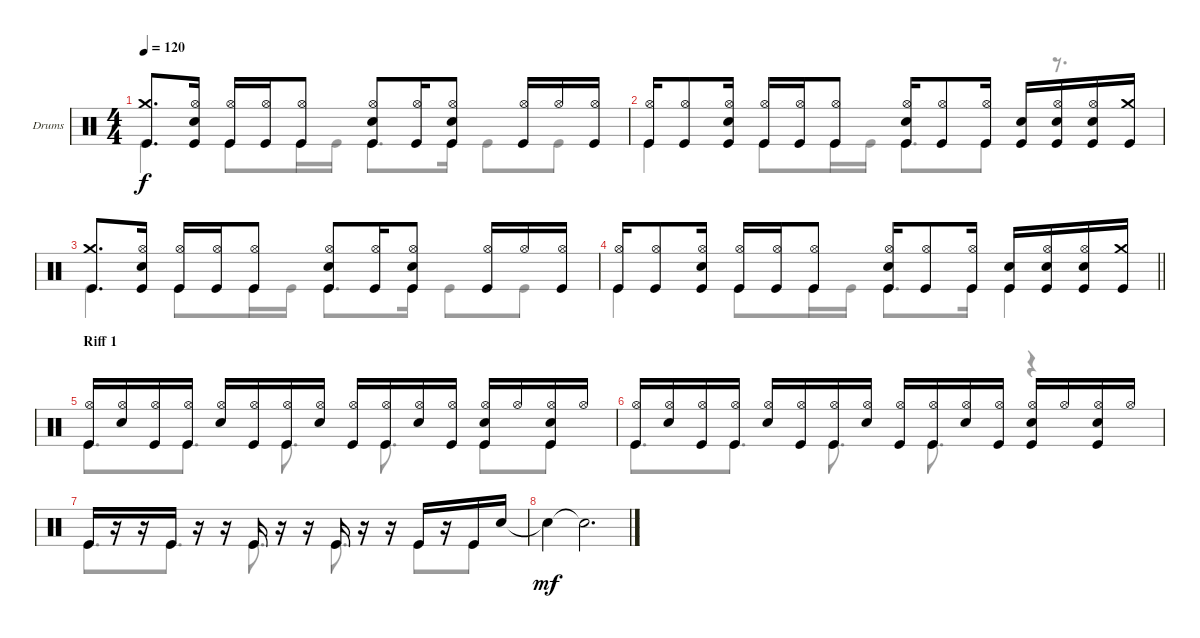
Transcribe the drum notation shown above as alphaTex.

\bracketExtendMode groupsimilarinstruments
\firstSystemTrackNameOrientation horizontal
\otherSystemsTrackNameOrientation horizontal
\track ("Drumkit" "Drums") {instrument percussion}
\staff {score}
\articulation defaults
\voice
\ts (4 4)
\tempo 120
\clef neutral
\ks c
("Crash medium (hit)" "Kick (hit)").8{d dy f} ("Hi-Hat (open)" "Snare (hit) 2" "Kick (hit)").16 ("Hi-Hat (open)" "Kick (hit)").16 ("Hi-Hat (open)" "Kick (hit)").16 ("Hi-Hat (open)" "Kick (hit)").8 ("Hi-Hat (open)" "Snare (hit) 2" "Kick (hit)").8 ("Hi-Hat (open)" "Kick (hit)").16 ("Hi-Hat (open)" "Snare (hit) 2" "Kick (hit)").8 ("Hi-Hat (open)" "Kick (hit)").16 "Hi-Hat (open)".16 ("Hi-Hat (open)" "Kick (hit)").16 |
("Hi-Hat (open)" "Kick (hit)").16 ("Hi-Hat (open)" "Kick (hit)").8 ("Hi-Hat (open)" "Snare (hit) 2" "Kick (hit)").16 ("Hi-Hat (open)" "Kick (hit)").16 ("Hi-Hat (open)" "Kick (hit)").16 ("Hi-Hat (open)" "Kick (hit)").8 ("Hi-Hat (open)" "Snare (hit) 2" "Kick (hit)").16 ("Hi-Hat (open)" "Kick (hit)").8 ("Hi-Hat (open)" "Kick (hit)").16 ("Snare (hit) 2" "Kick (hit)").16 ("Snare (hit) 2" "Hi-Hat (open)" "Kick (hit)").16 ("Snare (hit) 2" "Hi-Hat (open)" "Kick (hit)").16 ("Crash medium (hit)" "Kick (hit)").16 |
("Crash medium (hit)" "Kick (hit)").8{d} ("Hi-Hat (open)" "Snare (hit) 2" "Kick (hit)").16 ("Hi-Hat (open)" "Kick (hit)").16 ("Hi-Hat (open)" "Kick (hit)").16 ("Hi-Hat (open)" "Kick (hit)").8 ("Hi-Hat (open)" "Snare (hit) 2" "Kick (hit)").8 ("Hi-Hat (open)" "Kick (hit)").16 ("Hi-Hat (open)" "Snare (hit) 2" "Kick (hit)").8 ("Hi-Hat (open)" "Kick (hit)").16 "Hi-Hat (open)".16 ("Hi-Hat (open)" "Kick (hit)").16 |
\barLineRight lightlight
("Hi-Hat (open)" "Kick (hit)").16 ("Hi-Hat (open)" "Kick (hit)").8 ("Hi-Hat (open)" "Snare (hit) 2" "Kick (hit)").16 ("Hi-Hat (open)" "Kick (hit)").16 ("Hi-Hat (open)" "Kick (hit)").16 ("Hi-Hat (open)" "Kick (hit)").8 ("Hi-Hat (open)" "Snare (hit) 2" "Kick (hit)").16 ("Hi-Hat (open)" "Kick (hit)").8 ("Hi-Hat (open)" "Kick (hit)").16 ("Snare (hit) 2" "Kick (hit)").16 ("Snare (hit) 2" "Hi-Hat (open)" "Kick (hit)").16 ("Snare (hit) 2" "Hi-Hat (open)" "Kick (hit)").16 ("Crash medium (hit)" "Kick (hit)").16 |
\section ("" "Riff 1")
("Hi-Hat (open)" "Kick (hit)").16 ("Hi-Hat (open)" "Snare (hit) 2").16 ("Hi-Hat (open)" "Kick (hit)").16 ("Hi-Hat (open)" "Kick (hit)").16 ("Hi-Hat (open)" "Snare (hit) 2").16 ("Hi-Hat (open)" "Kick (hit)").16 ("Hi-Hat (open)" "Kick (hit)").16 ("Hi-Hat (open)" "Snare (hit) 2").16 ("Hi-Hat (open)" "Kick (hit)").16 ("Hi-Hat (open)" "Kick (hit)").16 ("Hi-Hat (open)" "Snare (hit) 2").16 ("Hi-Hat (open)" "Kick (hit)").16 ("Hi-Hat (open)" "Snare (hit) 2" "Kick (hit)").16 "Hi-Hat (open)".16 ("Hi-Hat (open)" "Snare (hit) 2" "Kick (hit)").16 "Hi-Hat (open)".16 |
("Hi-Hat (open)" "Kick (hit)").16 ("Hi-Hat (open)" "Snare (hit) 2").16 ("Hi-Hat (open)" "Kick (hit)").16 ("Hi-Hat (open)" "Kick (hit)").16 ("Hi-Hat (open)" "Snare (hit) 2").16 ("Hi-Hat (open)" "Kick (hit)").16 ("Hi-Hat (open)" "Kick (hit)").16 ("Hi-Hat (open)" "Snare (hit) 2").16 ("Hi-Hat (open)" "Kick (hit)").16 ("Hi-Hat (open)" "Kick (hit)").16 ("Hi-Hat (open)" "Snare (hit) 2").16 ("Hi-Hat (open)" "Kick (hit)").16 ("Hi-Hat (open)" "Snare (hit) 2" "Kick (hit)").16 "Hi-Hat (open)".16 ("Hi-Hat (open)" "Snare (hit) 2" "Kick (hit)").16 "Hi-Hat (open)".16 |
"Kick (hit)".16 r.16 r.16 "Kick (hit)".16 r.16 r.16 "Kick (hit)".16 r.16 r.16 "Kick (hit)".16 r.16 r.16 "Kick (hit)".16 r.16 "Kick (hit)".16 "Snare (hit) 2".16 |
"Snare (hit) 2"{t}.4{dy mf} "Snare (hit) 2"{t}.2{d}
\voice
\clef neutral
\ottava regular
\simile none
\ks c "Kick (hit)".4{dy f} "Kick (hit)".8 "Kick (hit)".16 "Kick (hit)".16 "Kick (hit)".8{d} "Kick (hit)".16 "Kick (hit)".8 "Kick (hit)".8
|
"Kick (hit)".4 "Kick (hit)".8 "Kick (hit)".16 "Kick (hit)".16 "Kick (hit)".8{d} "Kick (hit)".8 r.8{d} |
"Kick (hit)".4 "Kick (hit)".8 "Kick (hit)".16 "Kick (hit)".16 "Kick (hit)".8{d} "Kick (hit)".16 "Kick (hit)".8 "Kick (hit)".8 |
\barLineRight lightlight "Kick (hit)".4 "Kick (hit)".8 "Kick (hit)".16 "Kick (hit)".16 "Kick (hit)".8{d} "Kick (hit)".16 "Kick (hit)".4
|
"Kick (hit)".8{d} "Kick (hit)".8{d} "Kick (hit)".8{d} "Kick (hit)".8{d} "Kick (hit)".8 "Kick (hit)".8 |
"Kick (hit)".8{d} "Kick (hit)".8{d} "Kick (hit)".8{d} "Kick (hit)".8{d} r.4 |
"Kick (hit)".8{d} "Kick (hit)".8{d} "Kick (hit)".8{d} "Kick (hit)".8{d} "Kick (hit)".8 "Kick (hit)".8 |
